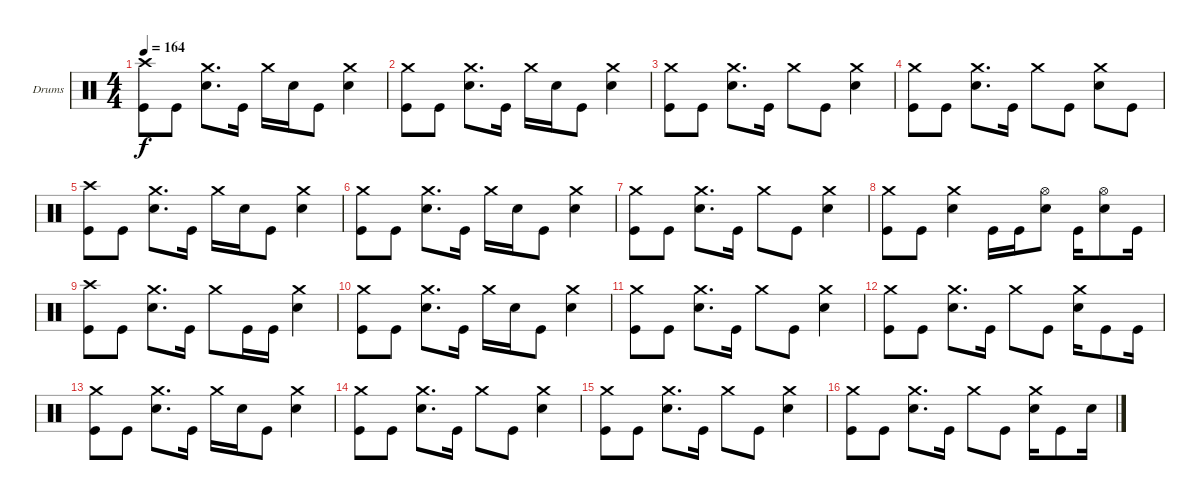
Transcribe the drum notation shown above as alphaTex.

\defaultSystemsLayout 4
\bracketExtendMode groupsimilarinstruments
\firstSystemTrackNameOrientation horizontal
\otherSystemsTrackNameOrientation horizontal
\track ("Drumkit" "Drums") {instrument percussion}
\staff {score}
\articulation defaults
\ts (4 4)
\tempo 164
\clef neutral
\ks c
("Kick (hit)" "Crash high (hit)").8{dy f} "Kick (hit)".8 ("Snare (hit) 2" "Crash medium (hit)").8{d} "Kick (hit)".16 "Crash medium (hit)".16 "Snare (hit) 2".16 "Kick (hit)".8 ("Snare (hit) 2" "Crash medium (hit)").4 |
("Kick (hit)" "Crash medium (hit)").8 "Kick (hit)".8 ("Snare (hit) 2" "Crash medium (hit)").8{d} "Kick (hit)".16 "Crash medium (hit)".16 "Snare (hit) 2".16 "Kick (hit)".8 ("Snare (hit) 2" "Crash medium (hit)").4 |
("Kick (hit)" "Crash medium (hit)").8 "Kick (hit)".8 ("Snare (hit) 2" "Crash medium (hit)").8{d} "Kick (hit)".16 "Crash medium (hit)".8 "Kick (hit)".8 ("Snare (hit) 2" "Crash medium (hit)").4 |
("Kick (hit)" "Crash medium (hit)").8 "Kick (hit)".8 ("Snare (hit) 2" "Crash medium (hit)").8{d} "Kick (hit)".16 "Crash medium (hit)".8 "Kick (hit)".8 ("Snare (hit) 2" "Crash medium (hit)").8 "Kick (hit)".8 |
("Kick (hit)" "Crash high (hit)").8 "Kick (hit)".8 ("Snare (hit) 2" "Crash medium (hit)").8{d} "Kick (hit)".16 "Crash medium (hit)".16 "Snare (hit) 2".16 "Kick (hit)".8 ("Snare (hit) 2" "Crash medium (hit)").4 |
("Kick (hit)" "Crash medium (hit)").8 "Kick (hit)".8 ("Snare (hit) 2" "Crash medium (hit)").8{d} "Kick (hit)".16 "Crash medium (hit)".16 "Snare (hit) 2".16 "Kick (hit)".8 ("Snare (hit) 2" "Crash medium (hit)").4 |
("Kick (hit)" "Crash medium (hit)").8 "Kick (hit)".8 ("Snare (hit) 2" "Crash medium (hit)").8{d} "Kick (hit)".16 "Crash medium (hit)".8 "Kick (hit)".8 ("Snare (hit) 2" "Crash medium (hit)").4 |
("Kick (hit)" "Crash medium (hit)").8 "Kick (hit)".8 ("Snare (hit) 2" "Crash medium (hit)").4 "Kick (hit)".16 "Kick (hit)".16 ("Hi-Hat (open)" "Snare (hit) 2").8 "Kick (hit)".16 ("Hi-Hat (open)" "Snare (hit) 2").8 "Kick (hit)".16 |
("Kick (hit)" "Crash high (hit)").8 "Kick (hit)".8 ("Snare (hit) 2" "Crash medium (hit)").8{d} "Kick (hit)".16 "Crash medium (hit)".8 "Kick (hit)".16 "Kick (hit)".16 ("Snare (hit) 2" "Crash medium (hit)").4 |
("Kick (hit)" "Crash medium (hit)").8 "Kick (hit)".8 ("Snare (hit) 2" "Crash medium (hit)").8{d} "Kick (hit)".16 "Crash medium (hit)".16 "Snare (hit) 2".16 "Kick (hit)".8 ("Snare (hit) 2" "Crash medium (hit)").4 |
("Kick (hit)" "Crash medium (hit)").8 "Kick (hit)".8 ("Snare (hit) 2" "Crash medium (hit)").8{d} "Kick (hit)".16 "Crash medium (hit)".8 "Kick (hit)".8 ("Snare (hit) 2" "Crash medium (hit)").4 |
("Kick (hit)" "Crash medium (hit)").8 "Kick (hit)".8 ("Snare (hit) 2" "Crash medium (hit)").8{d} "Kick (hit)".16 "Crash medium (hit)".8 "Kick (hit)".8 ("Snare (hit) 2" "Crash medium (hit)").16 "Kick (hit)".8 "Kick (hit)".16 |
("Kick (hit)" "Crash medium (hit)").8 "Kick (hit)".8 ("Snare (hit) 2" "Crash medium (hit)").8{d} "Kick (hit)".16 "Crash medium (hit)".16 "Snare (hit) 2".16 "Kick (hit)".8 ("Snare (hit) 2" "Crash medium (hit)").4 |
("Kick (hit)" "Crash medium (hit)").8 "Kick (hit)".8 ("Snare (hit) 2" "Crash medium (hit)").8{d} "Kick (hit)".16 "Crash medium (hit)".8 "Kick (hit)".8 ("Snare (hit) 2" "Crash medium (hit)").4 |
("Kick (hit)" "Crash medium (hit)").8 "Kick (hit)".8 ("Snare (hit) 2" "Crash medium (hit)").8{d} "Kick (hit)".16 "Crash medium (hit)".8 "Kick (hit)".8 ("Snare (hit) 2" "Crash medium (hit)").4 |
("Kick (hit)" "Crash medium (hit)").8 "Kick (hit)".8 ("Snare (hit) 2" "Crash medium (hit)").8{d} "Kick (hit)".16 "Crash medium (hit)".8 "Kick (hit)".8 ("Snare (hit) 2" "Crash medium (hit)").16 "Kick (hit)".8 "Snare (hit) 2".16
